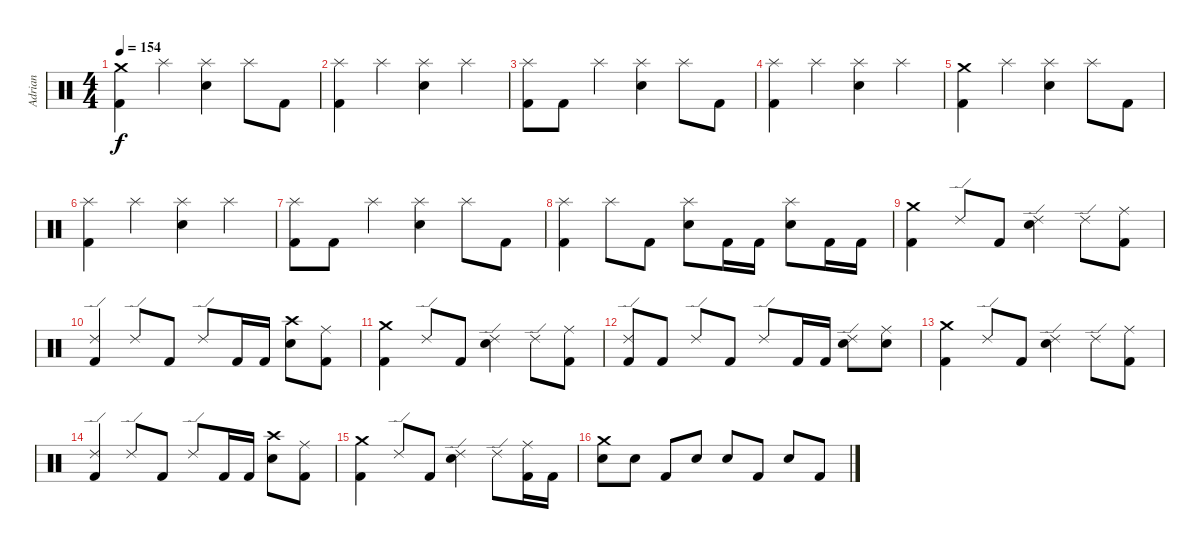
\track ("Adrian" "Adrian") {instrument percussion}
\staff {score}
\articulation defaults
\ts (4 4)
\tempo 154
\clef neutral
\ks c
("Crash medium (hit)" "Kick (hit) 2").4{dy f} "Splash (hit)".4 ("Splash (hit)" "Electric Snare (hit)").4 "Splash (hit)".8 "Kick (hit) 2".8 |
("Splash (hit)" "Kick (hit) 2").4 "Splash (hit)".4 ("Splash (hit)" "Electric Snare (hit)").4 "Splash (hit)".4 |
("Splash (hit)" "Kick (hit) 2").8 "Kick (hit) 2".8 "Splash (hit)".4 ("Splash (hit)" "Electric Snare (hit)").4 "Splash (hit)".8 "Kick (hit) 2".8 |
("Splash (hit)" "Kick (hit) 2").4 "Splash (hit)".4 ("Splash (hit)" "Electric Snare (hit)").4 "Splash (hit)".4 |
("Crash medium (hit)" "Kick (hit) 2").4 "Splash (hit)".4 ("Splash (hit)" "Electric Snare (hit)").4 "Splash (hit)".8 "Kick (hit) 2".8 |
("Splash (hit)" "Kick (hit) 2").4 "Splash (hit)".4 ("Splash (hit)" "Electric Snare (hit)").4 "Splash (hit)".4 |
("Splash (hit)" "Kick (hit) 2").8 "Kick (hit) 2".8 "Splash (hit)".4 ("Splash (hit)" "Electric Snare (hit)").4 "Splash (hit)".8 "Kick (hit) 2".8 |
("Splash (hit)" "Kick (hit) 2").4 "Splash (hit)".8 "Kick (hit) 2".8 ("Splash (hit)" "Electric Snare (hit)").8 "Kick (hit) 2".16 "Kick (hit) 2".16 ("Splash (hit)" "Electric Snare (hit)").8 "Kick (hit) 2".16 "Kick (hit) 2".16 |
("Crash medium (hit)" "Kick (hit) 2").4 "Ride (edge) 2".8 "Kick (hit) 2".8 ("Ride (edge) 2" "Electric Snare (hit)").4 "Ride (edge) 2".8 ("Ride (middle)" "Kick (hit) 2").8 |
("Ride (edge) 2" "Kick (hit) 2").4 "Ride (edge) 2".8 "Kick (hit) 2".8 "Ride (edge) 2".8 "Kick (hit) 2".16 "Kick (hit) 2".16 ("Crash high (hit)" "Electric Snare (hit)").8 ("Ride (middle)" "Kick (hit) 2").8 |
("Crash medium (hit)" "Kick (hit) 2").4 "Ride (edge) 2".8 "Kick (hit) 2".8 ("Ride (edge) 2" "Electric Snare (hit)").4 "Ride (edge) 2".8 ("Ride (middle)" "Kick (hit) 2").8 |
("Ride (edge) 2" "Kick (hit) 2").8 "Kick (hit) 2".8 "Ride (edge) 2".8 "Kick (hit) 2".8 "Ride (edge) 2".8 "Kick (hit) 2".16 "Kick (hit) 2".16 ("Ride (edge) 2" "Electric Snare (hit)").8 ("Ride (middle)" "Electric Snare (hit)").8 |
("Crash medium (hit)" "Kick (hit) 2").4 "Ride (edge) 2".8 "Kick (hit) 2".8 ("Ride (edge) 2" "Electric Snare (hit)").4 "Ride (edge) 2".8 ("Ride (middle)" "Kick (hit) 2").8 |
("Ride (edge) 2" "Kick (hit) 2").4 "Ride (edge) 2".8 "Kick (hit) 2".8 "Ride (edge) 2".8 "Kick (hit) 2".16 "Kick (hit) 2".16 ("Crash high (hit)" "Electric Snare (hit)").8 ("Ride (middle)" "Kick (hit) 2").8 |
("Crash medium (hit)" "Kick (hit) 2").4 "Ride (edge) 2".8 "Kick (hit) 2".8 ("Ride (edge) 2" "Electric Snare (hit)").4 "Ride (edge) 2".8 ("Ride (middle)" "Kick (hit) 2").16 "Kick (hit) 2".16 |
("Crash medium (hit)" "Electric Snare (hit)").8 "Electric Snare (hit)".8 "Kick (hit) 2".8 "Electric Snare (hit)".8 "Electric Snare (hit)".8 "Kick (hit) 2".8 "Electric Snare (hit)".8 "Kick (hit) 2".8
